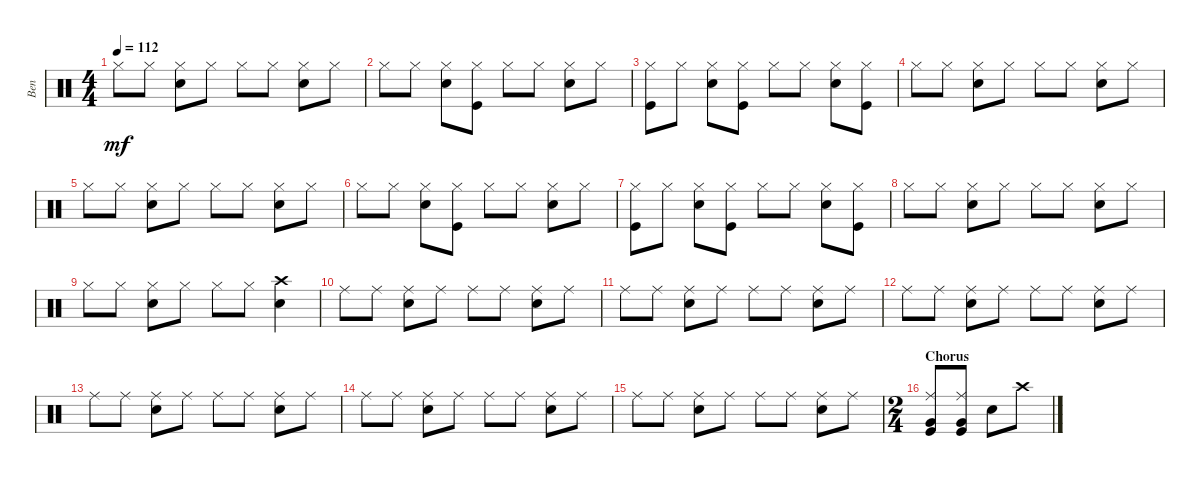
\track ("Ben" "Ben") {instrument percussion}
\staff {score}
\articulation defaults
\ts (4 4)
\tempo 112
\clef neutral
\ks c "Hi-Hat (closed)".8{dy mf} "Hi-Hat (closed)".8
("Hi-Hat (closed)" "Snare (hit) 2").8 "Hi-Hat (closed)".8 "Hi-Hat (closed)".8 "Hi-Hat (closed)".8 ("Hi-Hat (closed)" "Snare (hit) 2").8 "Hi-Hat (closed)".8 |
"Hi-Hat (closed)".8 "Hi-Hat (closed)".8 ("Hi-Hat (closed)" "Snare (hit) 2").8 ("Hi-Hat (closed)" "Kick (hit)").8 "Hi-Hat (closed)".8 "Hi-Hat (closed)".8 ("Hi-Hat (closed)" "Snare (hit) 2").8 "Hi-Hat (closed)".8 |
("Hi-Hat (closed)" "Kick (hit)").8 "Hi-Hat (closed)".8 ("Hi-Hat (closed)" "Snare (hit) 2").8 ("Hi-Hat (closed)" "Kick (hit)").8 "Hi-Hat (closed)".8 "Hi-Hat (closed)".8 ("Hi-Hat (closed)" "Snare (hit) 2").8 ("Hi-Hat (closed)" "Kick (hit)").8 |
"Hi-Hat (closed)".8 "Hi-Hat (closed)".8 ("Hi-Hat (closed)" "Snare (hit) 2").8 "Hi-Hat (closed)".8 "Hi-Hat (closed)".8 "Hi-Hat (closed)".8 ("Hi-Hat (closed)" "Snare (hit) 2").8 "Hi-Hat (closed)".8 |
"Hi-Hat (closed)".8 "Hi-Hat (closed)".8 ("Hi-Hat (closed)" "Snare (hit) 2").8 "Hi-Hat (closed)".8 "Hi-Hat (closed)".8 "Hi-Hat (closed)".8 ("Hi-Hat (closed)" "Snare (hit) 2").8 "Hi-Hat (closed)".8 |
"Hi-Hat (closed)".8 "Hi-Hat (closed)".8 ("Hi-Hat (closed)" "Snare (hit) 2").8 ("Hi-Hat (closed)" "Kick (hit)").8 "Hi-Hat (closed)".8 "Hi-Hat (closed)".8 ("Hi-Hat (closed)" "Snare (hit) 2").8 "Hi-Hat (closed)".8 |
("Hi-Hat (closed)" "Kick (hit)").8 "Hi-Hat (closed)".8 ("Hi-Hat (closed)" "Snare (hit) 2").8 ("Hi-Hat (closed)" "Kick (hit)").8 "Hi-Hat (closed)".8 "Hi-Hat (closed)".8 ("Hi-Hat (closed)" "Snare (hit) 2").8 ("Hi-Hat (closed)" "Kick (hit)").8 |
"Hi-Hat (closed)".8 "Hi-Hat (closed)".8 ("Hi-Hat (closed)" "Snare (hit) 2").8 "Hi-Hat (closed)".8 "Hi-Hat (closed)".8 "Hi-Hat (closed)".8 ("Hi-Hat (closed)" "Snare (hit) 2").8 "Hi-Hat (closed)".8 |
"Hi-Hat (closed)".8 "Hi-Hat (closed)".8 ("Hi-Hat (closed)" "Snare (hit) 2").8 "Hi-Hat (closed)".8 "Hi-Hat (closed)".8 "Hi-Hat (closed)".8 ("Snare (hit) 2" "Crash high (hit)").4 |
"Ride (middle)".8 "Ride (middle)".8 ("Ride (middle)" "Snare (hit) 2").8 "Ride (middle)".8 "Ride (middle)".8 "Ride (middle)".8 ("Ride (middle)" "Snare (hit) 2").8 "Ride (middle)".8 |
"Ride (middle)".8 "Ride (middle)".8 ("Ride (middle)" "Snare (hit) 2").8 "Ride (middle)".8 "Ride (middle)".8 "Ride (middle)".8 ("Ride (middle)" "Snare (hit) 2").8 "Ride (middle)".8 |
"Ride (middle)".8 "Ride (middle)".8 ("Ride (middle)" "Snare (hit) 2").8 "Ride (middle)".8 "Ride (middle)".8 "Ride (middle)".8 ("Ride (middle)" "Snare (hit) 2").8 "Ride (middle)".8 |
"Ride (middle)".8 "Ride (middle)".8 ("Ride (middle)" "Snare (hit) 2").8 "Ride (middle)".8 "Ride (middle)".8 "Ride (middle)".8 ("Ride (middle)" "Snare (hit) 2").8 "Ride (middle)".8 |
"Ride (middle)".8 "Ride (middle)".8 ("Ride (middle)" "Snare (hit) 2").8 "Ride (middle)".8 "Ride (middle)".8 "Ride (middle)".8 ("Ride (middle)" "Snare (hit) 2").8 "Ride (middle)".8 |
"Ride (middle)".8 "Ride (middle)".8 ("Ride (middle)" "Snare (hit) 2").8 "Ride (middle)".8 "Ride (middle)".8 "Ride (middle)".8 ("Ride (middle)" "Snare (hit) 2").8 "Ride (middle)".8 |
\ts (2 4)
\section ("" "Chorus")
("Kick (hit)" "Ride (middle)" "Very Low Tom (hit)").8 ("Kick (hit)" "Ride (middle)" "Very Low Tom (hit)").8 "Snare (hit) 2".8 "Crash high (hit)".8
